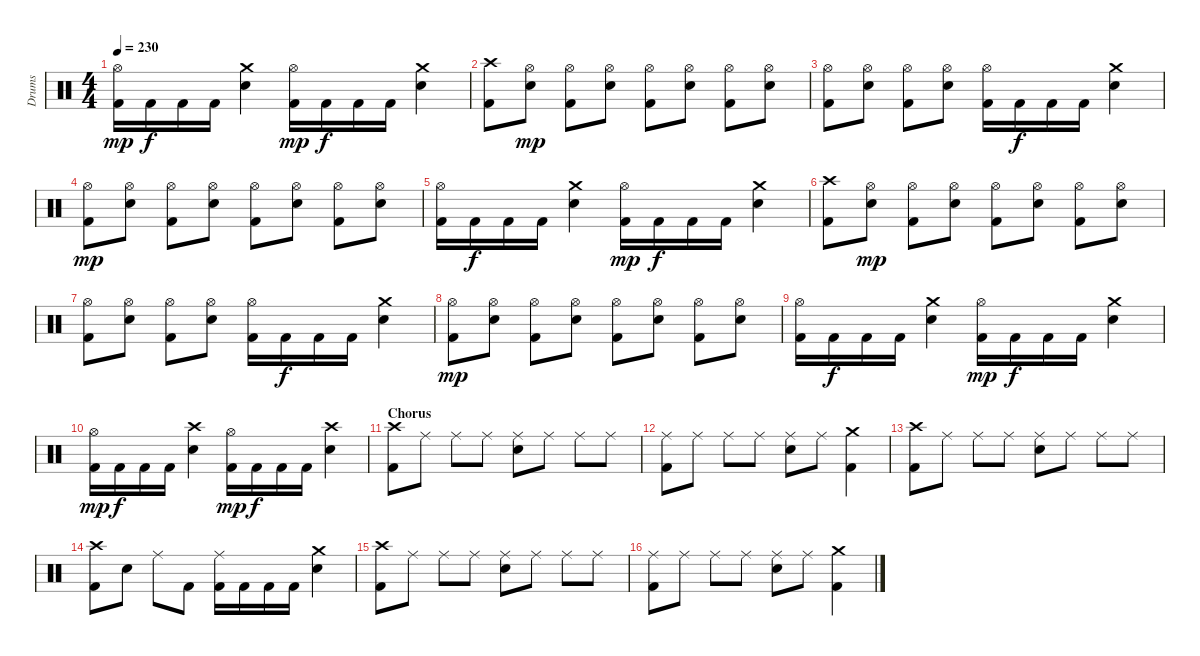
\track ("Drums" "Drums") {instrument percussion}
\staff {score}
\articulation defaults
\ts (4 4)
\tempo 230
\clef neutral
\ks c
("Hi-Hat (open)" "Kick (hit) 2").16{dy mp} "Kick (hit) 2".16{dy f} "Kick (hit) 2".16 "Kick (hit) 2".16 ("Crash medium (hit)" "Snare (hit) 2").4 ("Hi-Hat (open)" "Kick (hit) 2").16{dy mp} "Kick (hit) 2".16{dy f} "Kick (hit) 2".16 "Kick (hit) 2".16 ("Crash medium (hit)" "Snare (hit) 2").4 |
("Crash high (hit)" "Kick (hit) 2").8 ("Hi-Hat (open)" "Snare (hit) 2").8{dy mp} ("Hi-Hat (open)" "Kick (hit) 2").8 ("Hi-Hat (open)" "Snare (hit) 2").8 ("Hi-Hat (open)" "Kick (hit) 2").8 ("Hi-Hat (open)" "Snare (hit) 2").8 ("Hi-Hat (open)" "Kick (hit) 2").8 ("Hi-Hat (open)" "Snare (hit) 2").8 |
("Hi-Hat (open)" "Kick (hit) 2").8 ("Hi-Hat (open)" "Snare (hit) 2").8 ("Hi-Hat (open)" "Kick (hit) 2").8 ("Hi-Hat (open)" "Snare (hit) 2").8 ("Hi-Hat (open)" "Kick (hit) 2").16 "Kick (hit) 2".16{dy f} "Kick (hit) 2".16 "Kick (hit) 2".16 ("Crash medium (hit)" "Snare (hit) 2").4 |
("Hi-Hat (open)" "Kick (hit) 2").8{dy mp} ("Hi-Hat (open)" "Snare (hit) 2").8 ("Hi-Hat (open)" "Kick (hit) 2").8 ("Hi-Hat (open)" "Snare (hit) 2").8 ("Hi-Hat (open)" "Kick (hit) 2").8 ("Hi-Hat (open)" "Snare (hit) 2").8 ("Hi-Hat (open)" "Kick (hit) 2").8 ("Hi-Hat (open)" "Snare (hit) 2").8 |
("Hi-Hat (open)" "Kick (hit) 2").16 "Kick (hit) 2".16{dy f} "Kick (hit) 2".16 "Kick (hit) 2".16 ("Crash medium (hit)" "Snare (hit) 2").4 ("Hi-Hat (open)" "Kick (hit) 2").16{dy mp} "Kick (hit) 2".16{dy f} "Kick (hit) 2".16 "Kick (hit) 2".16 ("Crash medium (hit)" "Snare (hit) 2").4 |
("Crash high (hit)" "Kick (hit) 2").8 ("Hi-Hat (open)" "Snare (hit) 2").8{dy mp} ("Hi-Hat (open)" "Kick (hit) 2").8 ("Hi-Hat (open)" "Snare (hit) 2").8 ("Hi-Hat (open)" "Kick (hit) 2").8 ("Hi-Hat (open)" "Snare (hit) 2").8 ("Hi-Hat (open)" "Kick (hit) 2").8 ("Hi-Hat (open)" "Snare (hit) 2").8 |
("Hi-Hat (open)" "Kick (hit) 2").8 ("Hi-Hat (open)" "Snare (hit) 2").8 ("Hi-Hat (open)" "Kick (hit) 2").8 ("Hi-Hat (open)" "Snare (hit) 2").8 ("Hi-Hat (open)" "Kick (hit) 2").16 "Kick (hit) 2".16{dy f} "Kick (hit) 2".16 "Kick (hit) 2".16 ("Crash medium (hit)" "Snare (hit) 2").4 |
("Hi-Hat (open)" "Kick (hit) 2").8{dy mp} ("Hi-Hat (open)" "Snare (hit) 2").8 ("Hi-Hat (open)" "Kick (hit) 2").8 ("Hi-Hat (open)" "Snare (hit) 2").8 ("Hi-Hat (open)" "Kick (hit) 2").8 ("Hi-Hat (open)" "Snare (hit) 2").8 ("Hi-Hat (open)" "Kick (hit) 2").8 ("Hi-Hat (open)" "Snare (hit) 2").8 |
("Hi-Hat (open)" "Kick (hit) 2").16 "Kick (hit) 2".16{dy f} "Kick (hit) 2".16 "Kick (hit) 2".16 ("Crash medium (hit)" "Snare (hit) 2").4 ("Hi-Hat (open)" "Kick (hit) 2").16{dy mp} "Kick (hit) 2".16{dy f} "Kick (hit) 2".16 "Kick (hit) 2".16 ("Crash medium (hit)" "Snare (hit) 2").4 |
("Hi-Hat (open)" "Kick (hit) 2").16{dy mp} "Kick (hit) 2".16{dy f} "Kick (hit) 2".16 "Kick (hit) 2".16 ("Crash high (hit)" "Snare (hit) 2").4 ("Hi-Hat (open)" "Kick (hit) 2").16{dy mp} "Kick (hit) 2".16{dy f} "Kick (hit) 2".16 "Kick (hit) 2".16 ("Crash high (hit)" "Snare (hit) 2").4 |
\section ("" "Chorus")
("Crash high (hit)" "Kick (hit) 2").8 "Ride (middle)".8 "Ride (middle)".8 "Ride (middle)".8 ("Ride (middle)" "Snare (hit) 2").8 "Ride (middle)".8 "Ride (middle)".8 "Ride (middle)".8 |
("Ride (middle)" "Kick (hit) 2").8 "Ride (middle)".8 "Ride (middle)".8 "Ride (middle)".8 ("Ride (middle)" "Snare (hit) 2").8 "Ride (middle)".8 ("Crash medium (hit)" "Kick (hit) 2").4 |
("Crash high (hit)" "Kick (hit) 2").8 "Ride (middle)".8 "Ride (middle)".8 "Ride (middle)".8 ("Ride (middle)" "Snare (hit) 2").8 "Ride (middle)".8 "Ride (middle)".8 "Ride (middle)".8 |
("Crash high (hit)" "Kick (hit) 2").8 "Snare (hit) 2".8 "Ride (middle)".8 "Kick (hit) 2".8 ("Ride (middle)" "Kick (hit) 2").16 "Kick (hit) 2".16 "Kick (hit) 2".16 "Kick (hit) 2".16 ("Crash medium (hit)" "Snare (hit) 2").4 |
("Crash high (hit)" "Kick (hit) 2").8 "Ride (middle)".8 "Ride (middle)".8 "Ride (middle)".8 ("Ride (middle)" "Snare (hit) 2").8 "Ride (middle)".8 "Ride (middle)".8 "Ride (middle)".8 |
("Ride (middle)" "Kick (hit) 2").8 "Ride (middle)".8 "Ride (middle)".8 "Ride (middle)".8 ("Ride (middle)" "Snare (hit) 2").8 "Ride (middle)".8 ("Crash medium (hit)" "Kick (hit) 2").4
